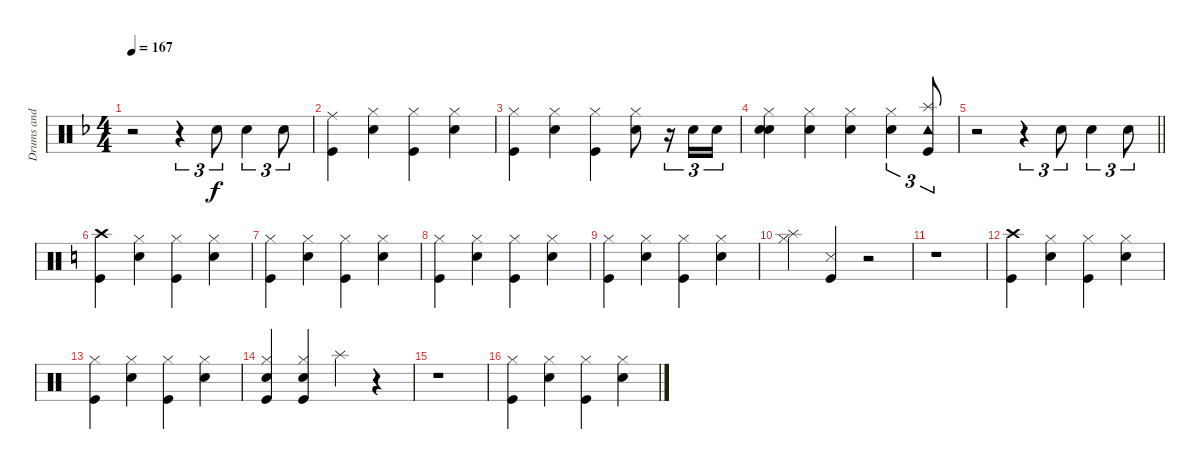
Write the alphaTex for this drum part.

\track ("Drums and percussion" "Drums and ") {instrument percussion}
\staff {score}
\articulation defaults
\ts (4 4)
\tempo 167
\clef neutral
\ks f
r.2{dy f} r.4{tu (3 2)} "Electric Snare (hit)".8{tu (3 2)} "Electric Snare (hit)".4{tu (3 2)} "Electric Snare (hit)".8{tu (3 2)} |
("Ride (middle)" "Kick (hit)").4 ("Hi-Hat (closed)" "Snare (hit) 2").4 ("Hi-Hat (closed)" "Kick (hit)").4 ("Hi-Hat (closed)" "Snare (hit) 2").4 |
("Hi-Hat (closed)" "Kick (hit)").4 ("Hi-Hat (closed)" "Snare (hit) 2").4 ("Hi-Hat (closed)" "Kick (hit)").4 ("Hi-Hat (closed)" "Snare (hit) 2").8 r.16{tu (3 2)} "Snare (hit) 2".16{tu (3 2)} "Snare (hit) 2".16{tu (3 2)} |
("Hi-Hat (closed)" "Snare (hit) 2" "Snare (hit) 2").4 ("Hi-Hat (closed)" "Snare (hit) 2").4 ("Hi-Hat (closed)" "Snare (hit) 2").4 ("Hi-Hat (closed)" "Snare (hit) 2").4{tu (3 2)} ("Splash (hit)" "Tambourine (hit)" "Kick (hit)").8{tu (3 2)} |
\barLineRight lightlight
r.2 r.4{tu (3 2)} "Electric Snare (hit)".8{tu (3 2)} "Electric Snare (hit)".4{tu (3 2)} "Electric Snare (hit)".8{tu (3 2)} |
\ks c
("Crash high (hit)" "Kick (hit)").4 ("Hi-Hat (closed)" "Snare (hit) 2").4 ("Hi-Hat (closed)" "Kick (hit)").4 ("Hi-Hat (closed)" "Snare (hit) 2").4 |
("Hi-Hat (closed)" "Kick (hit)").4 ("Hi-Hat (closed)" "Snare (hit) 2").4 ("Hi-Hat (closed)" "Kick (hit)").4 ("Hi-Hat (closed)" "Snare (hit) 2").4 |
("Hi-Hat (closed)" "Kick (hit)").4 ("Hi-Hat (closed)" "Snare (hit) 2").4 ("Hi-Hat (closed)" "Kick (hit)").4 ("Hi-Hat (closed)" "Snare (hit) 2").4 |
("Hi-Hat (closed)" "Kick (hit)").4 ("Hi-Hat (closed)" "Snare (hit) 2").4 ("Hi-Hat (closed)" "Kick (hit)").4 ("Hi-Hat (closed)" "Snare (hit) 2").4 |
("Hi-Hat (closed)" "Splash (hit)").4 ("Kick (hit)" "Metronome (hit)").4 r.2 |
r.1 |
("Crash high (hit)" "Kick (hit)").4 ("Hi-Hat (closed)" "Snare (hit) 2").4 ("Hi-Hat (closed)" "Kick (hit)").4 ("Hi-Hat (closed)" "Snare (hit) 2").4 |
("Hi-Hat (closed)" "Kick (hit)").4 ("Hi-Hat (closed)" "Snare (hit) 2").4 ("Hi-Hat (closed)" "Kick (hit)").4 ("Hi-Hat (closed)" "Snare (hit) 2").4 |
("Hi-Hat (closed)" "Snare (hit) 2" "Kick (hit)").4 ("Hi-Hat (closed)" "Snare (hit) 2" "Kick (hit)").4 "Splash (hit)".4 r.4 |
r.1 |
("Hi-Hat (closed)" "Kick (hit)").4 ("Hi-Hat (closed)" "Snare (hit) 2").4 ("Hi-Hat (closed)" "Kick (hit)").4 ("Hi-Hat (closed)" "Snare (hit) 2").4
